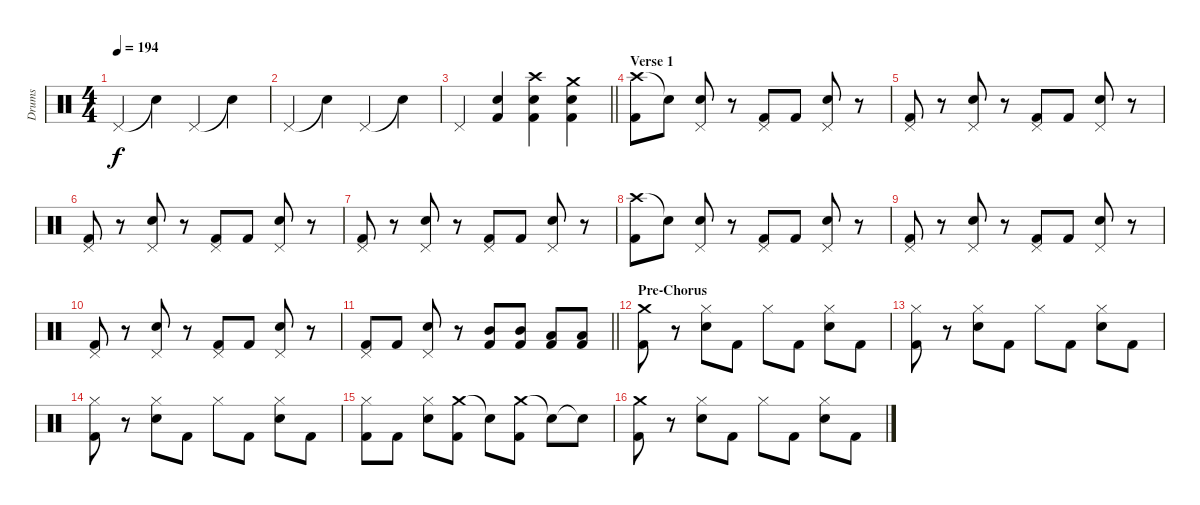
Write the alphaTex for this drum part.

\track ("Drums" "Drums") {instrument percussion}
\staff {score}
\articulation defaults
\ts (4 4)
\tempo 194
\clef neutral
\ks c "Pedal Hi-Hat (hit)".4{dy f} "Snare (hit)"{t}.4 "Pedal Hi-Hat (hit)".4 "Snare (hit)"{t}.4
|
"Pedal Hi-Hat (hit)".4 "Snare (hit)"{t}.4 "Pedal Hi-Hat (hit)".4 "Snare (hit)"{t}.4 |
\barLineRight lightlight "Pedal Hi-Hat (hit)".4
("Snare (hit) 2" "Kick (hit) 2").4 ("Crash high (hit)" "Snare (hit) 2" "Kick (hit) 2").4 ("Crash medium (hit)" "Snare (hit) 2" "Kick (hit) 2").4 |
\section ("" "Verse 1")
("Crash high (hit)" "Kick (hit) 2").8 "Snare (hit)"{t}.8 ("Pedal Hi-Hat (hit)" "Snare (hit) 2").8 r.8 ("Pedal Hi-Hat (hit)" "Kick (hit) 2").8 "Kick (hit) 2".8 ("Pedal Hi-Hat (hit)" "Snare (hit) 2").8 r.8 |
("Pedal Hi-Hat (hit)" "Kick (hit) 2").8 r.8 ("Pedal Hi-Hat (hit)" "Snare (hit) 2").8 r.8 ("Pedal Hi-Hat (hit)" "Kick (hit) 2").8 "Kick (hit) 2".8 ("Pedal Hi-Hat (hit)" "Snare (hit) 2").8 r.8 |
("Pedal Hi-Hat (hit)" "Kick (hit) 2").8 r.8 ("Pedal Hi-Hat (hit)" "Snare (hit) 2").8 r.8 ("Pedal Hi-Hat (hit)" "Kick (hit) 2").8 "Kick (hit) 2".8 ("Pedal Hi-Hat (hit)" "Snare (hit) 2").8 r.8 |
("Pedal Hi-Hat (hit)" "Kick (hit) 2").8 r.8 ("Pedal Hi-Hat (hit)" "Snare (hit) 2").8 r.8 ("Pedal Hi-Hat (hit)" "Kick (hit) 2").8 "Kick (hit) 2".8 ("Pedal Hi-Hat (hit)" "Snare (hit) 2").8 r.8 |
("Crash high (hit)" "Kick (hit) 2").8 "Snare (hit)"{t}.8 ("Pedal Hi-Hat (hit)" "Snare (hit) 2").8 r.8 ("Pedal Hi-Hat (hit)" "Kick (hit) 2").8 "Kick (hit) 2".8 ("Pedal Hi-Hat (hit)" "Snare (hit) 2").8 r.8 |
("Pedal Hi-Hat (hit)" "Kick (hit) 2").8 r.8 ("Pedal Hi-Hat (hit)" "Snare (hit) 2").8 r.8 ("Pedal Hi-Hat (hit)" "Kick (hit) 2").8 "Kick (hit) 2".8 ("Pedal Hi-Hat (hit)" "Snare (hit) 2").8 r.8 |
("Pedal Hi-Hat (hit)" "Kick (hit) 2").8 r.8 ("Pedal Hi-Hat (hit)" "Snare (hit) 2").8 r.8 ("Pedal Hi-Hat (hit)" "Kick (hit) 2").8 "Kick (hit) 2".8 ("Pedal Hi-Hat (hit)" "Snare (hit) 2").8 r.8 |
\barLineRight lightlight
("Pedal Hi-Hat (hit)" "Kick (hit) 2").8 "Kick (hit) 2".8 ("Pedal Hi-Hat (hit)" "Snare (hit) 2").8 r.8 ("Mid Tom (hit)" "Kick (hit) 2").8 ("Mid Tom (hit)" "Kick (hit) 2").8 ("Low Tom (hit)" "Kick (hit) 2").8 ("Low Tom (hit)" "Kick (hit) 2").8 |
\section ("" "Pre-Chorus")
("Crash medium (hit)" "Kick (hit) 2").8 r.8 ("Hi-Hat (closed)" "Snare (hit) 2").8 "Kick (hit) 2".8 "Hi-Hat (closed)".8 "Kick (hit) 2".8 ("Hi-Hat (closed)" "Snare (hit) 2").8 "Kick (hit) 2".8 |
("Hi-Hat (closed)" "Kick (hit) 2").8 r.8 ("Hi-Hat (closed)" "Snare (hit) 2").8 "Kick (hit) 2".8 "Hi-Hat (closed)".8 "Kick (hit) 2".8 ("Hi-Hat (closed)" "Snare (hit) 2").8 "Kick (hit) 2".8 |
("Hi-Hat (closed)" "Kick (hit) 2").8 r.8 ("Hi-Hat (closed)" "Snare (hit) 2").8 "Kick (hit) 2".8 "Hi-Hat (closed)".8 "Kick (hit) 2".8 ("Hi-Hat (closed)" "Snare (hit) 2").8 "Kick (hit) 2".8 |
("Hi-Hat (closed)" "Kick (hit) 2").8 "Kick (hit) 2".8 ("Hi-Hat (closed)" "Snare (hit) 2").8 ("Crash medium (hit)" "Kick (hit) 2").8 "Snare (hit)"{t}.8 ("Crash medium (hit)" "Kick (hit) 2").8 "Snare (hit)"{t}.8 "Snare (hit)"{t}.8 |
("Crash medium (hit)" "Kick (hit) 2").8 r.8 ("Hi-Hat (closed)" "Snare (hit) 2").8 "Kick (hit) 2".8 "Hi-Hat (closed)".8 "Kick (hit) 2".8 ("Hi-Hat (closed)" "Snare (hit) 2").8 "Kick (hit) 2".8
